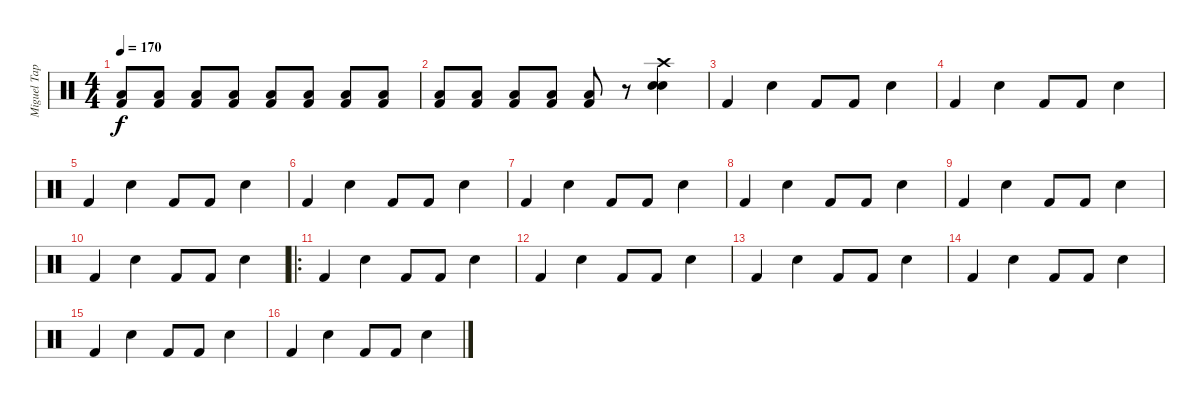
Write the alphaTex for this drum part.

\track ("Miguel Tapia" "Miguel Tap") {instrument percussion}
\staff {score}
\articulation defaults
\ts (4 4)
\tempo 170
\clef neutral
\ks c
("Kick (hit) 2" "Low Tom (hit)").8{dy f} ("Kick (hit) 2" "Low Tom (hit)").8 ("Kick (hit) 2" "Low Tom (hit)").8 ("Kick (hit) 2" "Low Tom (hit)").8 ("Kick (hit) 2" "Low Tom (hit)").8 ("Kick (hit) 2" "Low Tom (hit)").8 ("Kick (hit) 2" "Low Tom (hit)").8 ("Kick (hit) 2" "Low Tom (hit)").8 |
("Kick (hit) 2" "Low Tom (hit)").8 ("Kick (hit) 2" "Low Tom (hit)").8 ("Kick (hit) 2" "Low Tom (hit)").8 ("Kick (hit) 2" "Low Tom (hit)").8 ("Kick (hit) 2" "Low Tom (hit)").8 r.8 ("Crash high (hit)" "Snare (hit) 2" "Snare (hit) 2").4 |
"Kick (hit) 2".4 "Snare (hit) 2".4 "Kick (hit) 2".8 "Kick (hit) 2".8 "Snare (hit) 2".4 |
"Kick (hit) 2".4 "Snare (hit) 2".4 "Kick (hit) 2".8 "Kick (hit) 2".8 "Snare (hit) 2".4 |
"Kick (hit) 2".4 "Snare (hit) 2".4 "Kick (hit) 2".8 "Kick (hit) 2".8 "Snare (hit) 2".4 |
"Kick (hit) 2".4 "Snare (hit) 2".4 "Kick (hit) 2".8 "Kick (hit) 2".8 "Snare (hit) 2".4 |
"Kick (hit) 2".4 "Snare (hit) 2".4 "Kick (hit) 2".8 "Kick (hit) 2".8 "Snare (hit) 2".4 |
"Kick (hit) 2".4 "Snare (hit) 2".4 "Kick (hit) 2".8 "Kick (hit) 2".8 "Snare (hit) 2".4 |
"Kick (hit) 2".4 "Snare (hit) 2".4 "Kick (hit) 2".8 "Kick (hit) 2".8 "Snare (hit) 2".4 |
"Kick (hit) 2".4 "Snare (hit) 2".4 "Kick (hit) 2".8 "Kick (hit) 2".8 "Snare (hit) 2".4 |
\ro "Kick (hit) 2".4 "Snare (hit) 2".4 "Kick (hit) 2".8 "Kick (hit) 2".8 "Snare (hit) 2".4
|
"Kick (hit) 2".4 "Snare (hit) 2".4 "Kick (hit) 2".8 "Kick (hit) 2".8 "Snare (hit) 2".4 |
"Kick (hit) 2".4 "Snare (hit) 2".4 "Kick (hit) 2".8 "Kick (hit) 2".8 "Snare (hit) 2".4 |
"Kick (hit) 2".4 "Snare (hit) 2".4 "Kick (hit) 2".8 "Kick (hit) 2".8 "Snare (hit) 2".4 |
"Kick (hit) 2".4 "Snare (hit) 2".4 "Kick (hit) 2".8 "Kick (hit) 2".8 "Snare (hit) 2".4 |
"Kick (hit) 2".4 "Snare (hit) 2".4 "Kick (hit) 2".8 "Kick (hit) 2".8 "Snare (hit) 2".4
